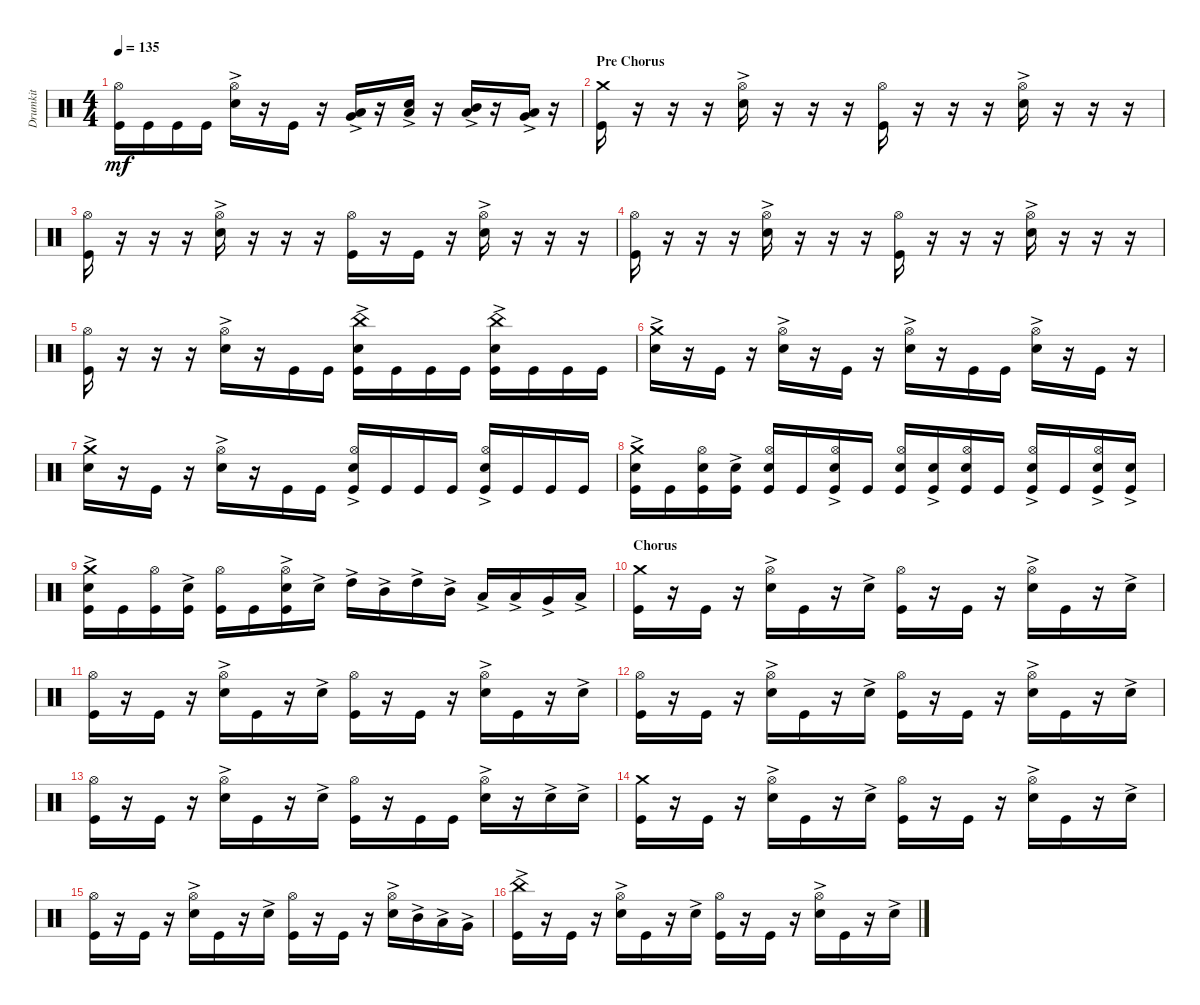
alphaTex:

\track ("Drumkit" "Drumkit") {instrument percussion}
\staff {score}
\articulation defaults
\ts (4 4)
\tempo 135
\clef neutral
\ks c
("Kick (hit)" "Hi-Hat (open)").16{dy mf} "Kick (hit)".16 "Kick (hit)".16 "Kick (hit)".16 ("Snare (hit) 2"{ac} "Hi-Hat (open)").16 r.16 "Kick (hit)".16 r.16 ("Very Low Tom (hit)"{ac} "Low Floor Tom (hit)"{ac}).16 r.16 ("Low Floor Tom (hit)"{ac} "Snare (hit) 2"{ac}).16 r.16 ("Mid Tom (hit)"{ac} "Low Tom (hit)"{ac}).16 r.16 ("Low Tom (hit)"{ac} "Very Low Tom (hit)"{ac}).16 r.16 |
\section ("" "Pre Chorus")
("Crash medium (hit)" "Kick (hit)").16 r.16 r.16 r.16 ("Hi-Hat (open)" "Snare (hit) 2"{ac}).16 r.16 r.16 r.16 ("Hi-Hat (open)" "Kick (hit)").16 r.16 r.16 r.16 ("Hi-Hat (open)" "Snare (hit) 2"{ac}).16 r.16 r.16 r.16 |
("Kick (hit)" "Hi-Hat (open)").16 r.16 r.16 r.16 ("Hi-Hat (open)" "Snare (hit) 2"{ac}).16 r.16 r.16 r.16 ("Hi-Hat (open)" "Kick (hit)").16 r.16 "Kick (hit)".16 r.16 ("Hi-Hat (open)" "Snare (hit) 2"{ac}).16 r.16 r.16 r.16 |
("Kick (hit)" "Hi-Hat (open)").16 r.16 r.16 r.16 ("Hi-Hat (open)" "Snare (hit) 2"{ac}).16 r.16 r.16 r.16 ("Hi-Hat (open)" "Kick (hit)").16 r.16 r.16 r.16 ("Hi-Hat (open)" "Snare (hit) 2"{ac}).16 r.16 r.16 r.16 |
("Kick (hit)" "Hi-Hat (open)").16 r.16 r.16 r.16 ("Hi-Hat (open)" "Snare (hit) 2"{ac}).16 r.16 "Kick (hit)".16 "Kick (hit)".16 ("Snare (hit) 2"{ac} "Kick (hit)" "China (hit)").16 "Kick (hit)".16 "Kick (hit)".16 "Kick (hit)".16 ("Snare (hit) 2"{ac} "Kick (hit)" "China (hit)").16 "Kick (hit)".16 "Kick (hit)".16 "Kick (hit)".16 |
("Crash medium (hit)" "Snare (hit) 2"{ac}).16 r.16 "Kick (hit)".16 r.16 ("Hi-Hat (open)" "Snare (hit) 2"{ac}).16 r.16 "Kick (hit)".16 r.16 ("Hi-Hat (open)" "Snare (hit) 2"{ac}).16 r.16 "Kick (hit)".16 "Kick (hit)".16 ("Hi-Hat (open)" "Snare (hit) 2"{ac}).16 r.16 "Kick (hit)".16 r.16 |
("Crash medium (hit)" "Snare (hit) 2"{ac}).16 r.16 "Kick (hit)".16 r.16 ("Hi-Hat (open)" "Snare (hit) 2"{ac}).16 r.16 "Kick (hit)".16 "Kick (hit)".16 ("Kick (hit)" "Snare (hit) 2"{ac} "Hi-Hat (open)").16 "Kick (hit)".16 "Kick (hit)".16 "Kick (hit)".16 ("Kick (hit)" "Snare (hit) 2"{ac} "Hi-Hat (open)").16 "Kick (hit)".16 "Kick (hit)".16 "Kick (hit)".16 |
("Kick (hit)" "Snare (hit) 2"{ac} "Crash medium (hit)").16 "Kick (hit)".16 ("Kick (hit)" "Hi-Hat (open)" "Snare (hit) 2").16 ("Kick (hit)" "Snare (hit) 2"{ac}).16 ("Kick (hit)" "Hi-Hat (open)" "Snare (hit) 2").16 "Kick (hit)".16 ("Kick (hit)" "Snare (hit) 2"{ac} "Hi-Hat (open)").16 "Kick (hit)".16 ("Kick (hit)" "Hi-Hat (open)" "Snare (hit) 2").16 ("Kick (hit)" "Snare (hit) 2"{ac}).16 ("Kick (hit)" "Hi-Hat (open)" "Snare (hit) 2").16 "Kick (hit)".16 ("Kick (hit)" "Snare (hit) 2"{ac} "Hi-Hat (open)").16 "Kick (hit)".16 ("Kick (hit)" "Snare (hit) 2"{ac} "Hi-Hat (open)").16 ("Kick (hit)" "Snare (hit) 2"{ac}).16 |
("Kick (hit)" "Snare (hit) 2"{ac} "Crash medium (hit)").16 "Kick (hit)".16 ("Kick (hit)" "Hi-Hat (open)").16 ("Kick (hit)" "Snare (hit) 2"{ac}).16 ("Kick (hit)" "Hi-Hat (open)").16 "Kick (hit)".16 ("Kick (hit)" "Snare (hit) 2"{ac} "Hi-Hat (open)").16 "Snare (hit) 2"{ac}.16 "High Tom (hit)"{ac}.16 "Mid Tom (hit)"{ac}.16 "High Tom (hit)"{ac}.16 "Mid Tom (hit)"{ac}.16 "Low Tom (hit)"{ac}.16 "Low Tom (hit)"{ac}.16 "Very Low Tom (hit)"{ac}.16 "Low Floor Tom (hit)"{ac}.16 |
\section ("" "Chorus")
("Kick (hit)" "Crash medium (hit)").16 r.16 "Kick (hit)".16 r.16 ("Snare (hit) 2"{ac} "Hi-Hat (open)").16 "Kick (hit)".16 r.16 "Snare (hit) 2"{ac}.16 ("Kick (hit)" "Hi-Hat (open)").16 r.16 "Kick (hit)".16 r.16 ("Snare (hit) 2"{ac} "Hi-Hat (open)").16 "Kick (hit)".16 r.16 "Snare (hit) 2"{ac}.16 |
("Kick (hit)" "Hi-Hat (open)").16 r.16 "Kick (hit)".16 r.16 ("Snare (hit) 2"{ac} "Hi-Hat (open)").16 "Kick (hit)".16 r.16 "Snare (hit) 2"{ac}.16 ("Kick (hit)" "Hi-Hat (open)").16 r.16 "Kick (hit)".16 r.16 ("Snare (hit) 2"{ac} "Hi-Hat (open)").16 "Kick (hit)".16 r.16 "Snare (hit) 2"{ac}.16 |
("Kick (hit)" "Hi-Hat (open)").16 r.16 "Kick (hit)".16 r.16 ("Snare (hit) 2"{ac} "Hi-Hat (open)").16 "Kick (hit)".16 r.16 "Snare (hit) 2"{ac}.16 ("Kick (hit)" "Hi-Hat (open)").16 r.16 "Kick (hit)".16 r.16 ("Snare (hit) 2"{ac} "Hi-Hat (open)").16 "Kick (hit)".16 r.16 "Snare (hit) 2"{ac}.16 |
("Kick (hit)" "Hi-Hat (open)").16 r.16 "Kick (hit)".16 r.16 ("Snare (hit) 2"{ac} "Hi-Hat (open)").16 "Kick (hit)".16 r.16 "Snare (hit) 2"{ac}.16 ("Kick (hit)" "Hi-Hat (open)").16 r.16 "Kick (hit)".16 "Kick (hit)".16 ("Snare (hit) 2"{ac} "Hi-Hat (open)").16 r.16 "Snare (hit) 2"{ac}.16 "Snare (hit) 2"{ac}.16 |
("Kick (hit)" "Crash medium (hit)").16 r.16 "Kick (hit)".16 r.16 ("Snare (hit) 2"{ac} "Hi-Hat (open)").16 "Kick (hit)".16 r.16 "Snare (hit) 2"{ac}.16 ("Kick (hit)" "Hi-Hat (open)").16 r.16 "Kick (hit)".16 r.16 ("Snare (hit) 2"{ac} "Hi-Hat (open)").16 "Kick (hit)".16 r.16 "Snare (hit) 2"{ac}.16 |
("Kick (hit)" "Hi-Hat (open)").16 r.16 "Kick (hit)".16 r.16 ("Snare (hit) 2"{ac} "Hi-Hat (open)").16 "Kick (hit)".16 r.16 "Snare (hit) 2"{ac}.16 ("Kick (hit)" "Hi-Hat (open)").16 r.16 "Kick (hit)".16 r.16 ("Snare (hit) 2"{ac} "Hi-Hat (open)").16 "Mid Tom (hit)"{ac}.16 "Low Tom (hit)"{ac}.16 "Very Low Tom (hit)"{ac}.16 |
("Kick (hit)" "China (hit)"{ac}).16 r.16 "Kick (hit)".16 r.16 ("Snare (hit) 2"{ac} "Hi-Hat (open)").16 "Kick (hit)".16 r.16 "Snare (hit) 2"{ac}.16 ("Kick (hit)" "Hi-Hat (open)").16 r.16 "Kick (hit)".16 r.16 ("Snare (hit) 2"{ac} "Hi-Hat (open)").16 "Kick (hit)".16 r.16 "Snare (hit) 2"{ac}.16
